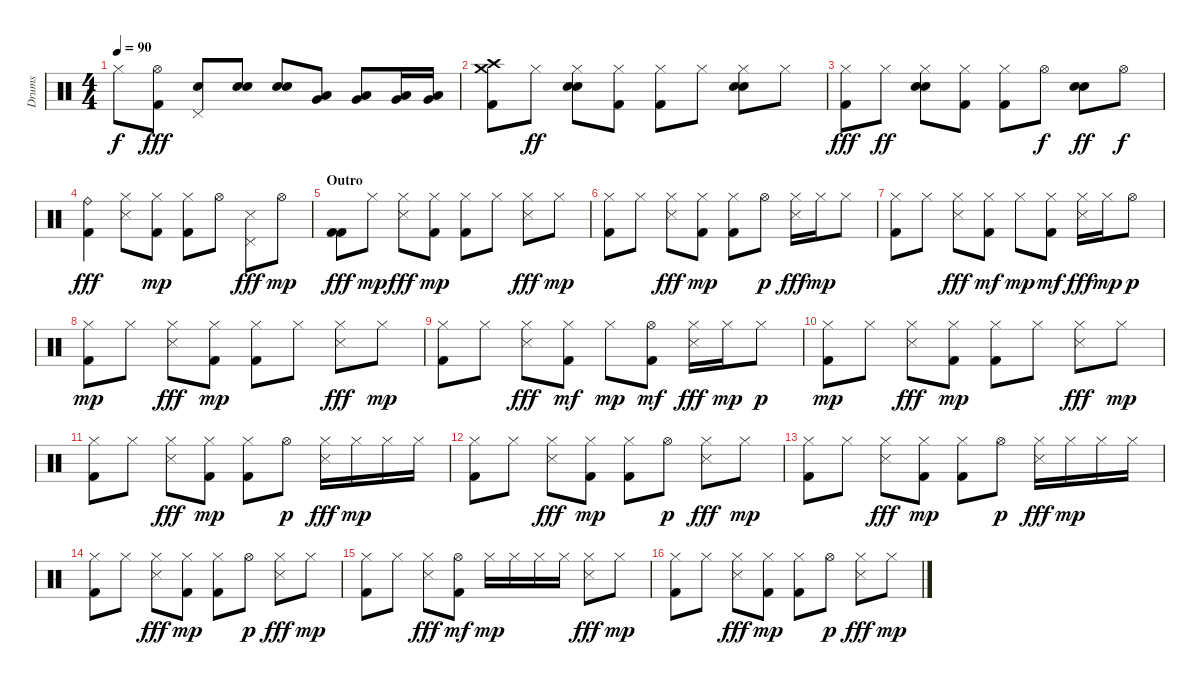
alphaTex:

\track ("Drums" "Drums") {instrument percussion}
\staff {score}
\articulation defaults
\ts (4 4)
\tempo 90
\clef neutral
\ks c "Hi-Hat (closed)".8{dy f}
("Hi-Hat (open)" "Kick (hit) 2").8{dy fff} ("Pedal Hi-Hat (hit)" "Electric Snare (hit)").8 ("Snare (hit) 2" "Electric Snare (hit)").8 ("Snare (hit) 2" "Electric Snare (hit)").8 ("Low Tom (hit)" "Very Low Tom (hit)").8 ("Low Tom (hit)" "Very Low Tom (hit)").8 ("Very Low Tom (hit)" "Low Floor Tom (hit)").16 ("Very Low Tom (hit)" "Low Floor Tom (hit)").16 |
("Crash medium (hit)" "Crash high (hit)" "Kick (hit) 2").8 "Hi-Hat (closed)".8{dy ff} ("Hi-Hat (closed)" "Snare (hit) 2" "Electric Snare (hit)").8 ("Hi-Hat (closed)" "Kick (hit) 2").8 ("Hi-Hat (closed)" "Kick (hit) 2").8 "Hi-Hat (closed)".8 ("Hi-Hat (closed)" "Snare (hit) 2" "Electric Snare (hit)").8 "Hi-Hat (closed)".8 |
("Hi-Hat (closed)" "Kick (hit) 2").8{dy fff} "Hi-Hat (closed)".8{dy ff} ("Hi-Hat (closed)" "Snare (hit) 2" "Electric Snare (hit)").8 ("Hi-Hat (closed)" "Kick (hit) 2").8 ("Hi-Hat (closed)" "Kick (hit) 2").8 "Hi-Hat (open)".8{dy f} ("Snare (hit) 2" "Electric Snare (hit)").8{dy ff} "Hi-Hat (open)".8{dy f} |
("Ride (bell)" "Kick (hit) 2").4{dy fff volume 10} ("Hi-Hat (closed)" "Snare (side stick) 3").8 ("Hi-Hat (closed)" "Kick (hit) 2").8{dy mp} ("Hi-Hat (closed)" "Kick (hit) 2").8 "Hi-Hat (open)".8 ("Pedal Hi-Hat (hit)" "Snare (side stick) 3").8{dy fff} "Hi-Hat (open)".8{dy mp} |
\section ("" "Outro")
("Kick (hit) 2" "Kick (hit) 2").8{dy fff} "Hi-Hat (closed)".8{dy mp} ("Hi-Hat (closed)" "Snare (side stick) 3").8{dy fff} ("Hi-Hat (closed)" "Kick (hit) 2").8{dy mp} ("Hi-Hat (closed)" "Kick (hit) 2").8 "Hi-Hat (closed)".8 ("Hi-Hat (closed)" "Snare (side stick) 3").8{dy fff} "Hi-Hat (closed)".8{dy mp} |
("Hi-Hat (closed)" "Kick (hit) 2").8 "Hi-Hat (closed)".8 ("Hi-Hat (closed)" "Snare (side stick) 3").8{dy fff} ("Hi-Hat (closed)" "Kick (hit) 2").8{dy mp} ("Hi-Hat (closed)" "Kick (hit) 2").8 "Hi-Hat (open)".8{dy p} ("Hi-Hat (closed)" "Snare (side stick) 3").16{dy fff} "Hi-Hat (closed)".16{dy mp} "Hi-Hat (closed)".8 |
("Hi-Hat (closed)" "Kick (hit) 2").8 "Hi-Hat (closed)".8 ("Hi-Hat (closed)" "Snare (side stick) 3").8{dy fff} ("Hi-Hat (closed)" "Kick (hit) 2").8{dy mf} "Hi-Hat (closed)".8{dy mp} ("Hi-Hat (closed)" "Kick (hit) 2").8{dy mf} ("Hi-Hat (closed)" "Snare (side stick) 3").16{dy fff} "Hi-Hat (closed)".16{dy mp} "Hi-Hat (open)".8{dy p} |
("Hi-Hat (closed)" "Kick (hit) 2").8{dy mp} "Hi-Hat (closed)".8 ("Hi-Hat (closed)" "Snare (side stick) 3").8{dy fff} ("Hi-Hat (closed)" "Kick (hit) 2").8{dy mp} ("Hi-Hat (closed)" "Kick (hit) 2").8 "Hi-Hat (closed)".8 ("Hi-Hat (closed)" "Snare (side stick) 3").8{dy fff} "Hi-Hat (closed)".8{dy mp} |
("Hi-Hat (closed)" "Kick (hit) 2").8 "Hi-Hat (closed)".8 ("Hi-Hat (closed)" "Snare (side stick) 3").8{dy fff} ("Hi-Hat (closed)" "Kick (hit) 2").8{dy mf} "Hi-Hat (closed)".8{dy mp} ("Hi-Hat (open)" "Kick (hit) 2").8{dy mf} ("Hi-Hat (closed)" "Snare (side stick) 3").16{dy fff} "Hi-Hat (closed)".16{dy mp} "Hi-Hat (closed)".8{dy p} |
("Hi-Hat (closed)" "Kick (hit) 2").8{dy mp} "Hi-Hat (closed)".8 ("Hi-Hat (closed)" "Snare (side stick) 3").8{dy fff} ("Hi-Hat (closed)" "Kick (hit) 2").8{dy mp} ("Hi-Hat (closed)" "Kick (hit) 2").8 "Hi-Hat (closed)".8 ("Hi-Hat (closed)" "Snare (side stick) 3").8{dy fff} "Hi-Hat (closed)".8{dy mp} |
("Hi-Hat (closed)" "Kick (hit) 2").8{volume 9} "Hi-Hat (closed)".8 ("Hi-Hat (closed)" "Snare (side stick) 3").8{dy fff} ("Hi-Hat (closed)" "Kick (hit) 2").8{dy mp} ("Hi-Hat (closed)" "Kick (hit) 2").8 "Hi-Hat (open)".8{dy p} ("Hi-Hat (closed)" "Snare (side stick) 3").16{dy fff} "Hi-Hat (closed)".16{dy mp} "Hi-Hat (closed)".16 "Hi-Hat (closed)".16 |
("Hi-Hat (closed)" "Kick (hit) 2").8 "Hi-Hat (closed)".8 ("Hi-Hat (closed)" "Snare (side stick) 3").8{dy fff} ("Hi-Hat (closed)" "Kick (hit) 2").8{dy mp} ("Hi-Hat (closed)" "Kick (hit) 2").8 "Hi-Hat (open)".8{dy p} ("Hi-Hat (closed)" "Snare (side stick) 3").8{dy fff} "Hi-Hat (closed)".8{dy mp} |
("Hi-Hat (closed)" "Kick (hit) 2").8 "Hi-Hat (closed)".8 ("Hi-Hat (closed)" "Snare (side stick) 3").8{dy fff} ("Hi-Hat (closed)" "Kick (hit) 2").8{dy mp} ("Hi-Hat (closed)" "Kick (hit) 2").8 "Hi-Hat (open)".8{dy p} ("Hi-Hat (closed)" "Snare (side stick) 3").16{dy fff} "Hi-Hat (closed)".16{dy mp} "Hi-Hat (closed)".16 "Hi-Hat (closed)".16 |
("Hi-Hat (closed)" "Kick (hit) 2").8{volume 8} "Hi-Hat (closed)".8 ("Hi-Hat (closed)" "Snare (side stick) 3").8{dy fff} ("Hi-Hat (closed)" "Kick (hit) 2").8{dy mp} ("Hi-Hat (closed)" "Kick (hit) 2").8 "Hi-Hat (open)".8{dy p} ("Hi-Hat (closed)" "Snare (side stick) 3").8{dy fff} "Hi-Hat (closed)".8{dy mp} |
("Hi-Hat (closed)" "Kick (hit) 2").8 "Hi-Hat (closed)".8 ("Hi-Hat (closed)" "Snare (side stick) 3").8{dy fff} ("Hi-Hat (open)" "Kick (hit) 2").8{dy mf} "Hi-Hat (closed)".16{dy mp} "Hi-Hat (closed)".16 "Hi-Hat (closed)".16 "Hi-Hat (closed)".16 ("Hi-Hat (closed)" "Snare (side stick) 3").8{dy fff} "Hi-Hat (closed)".8{dy mp} |
("Hi-Hat (closed)" "Kick (hit) 2").8 "Hi-Hat (closed)".8 ("Hi-Hat (closed)" "Snare (side stick) 3").8{dy fff} ("Hi-Hat (closed)" "Kick (hit) 2").8{dy mp} ("Hi-Hat (closed)" "Kick (hit) 2").8 "Hi-Hat (open)".8{dy p} ("Hi-Hat (closed)" "Snare (side stick) 3").8{dy fff} "Hi-Hat (closed)".8{dy mp}
